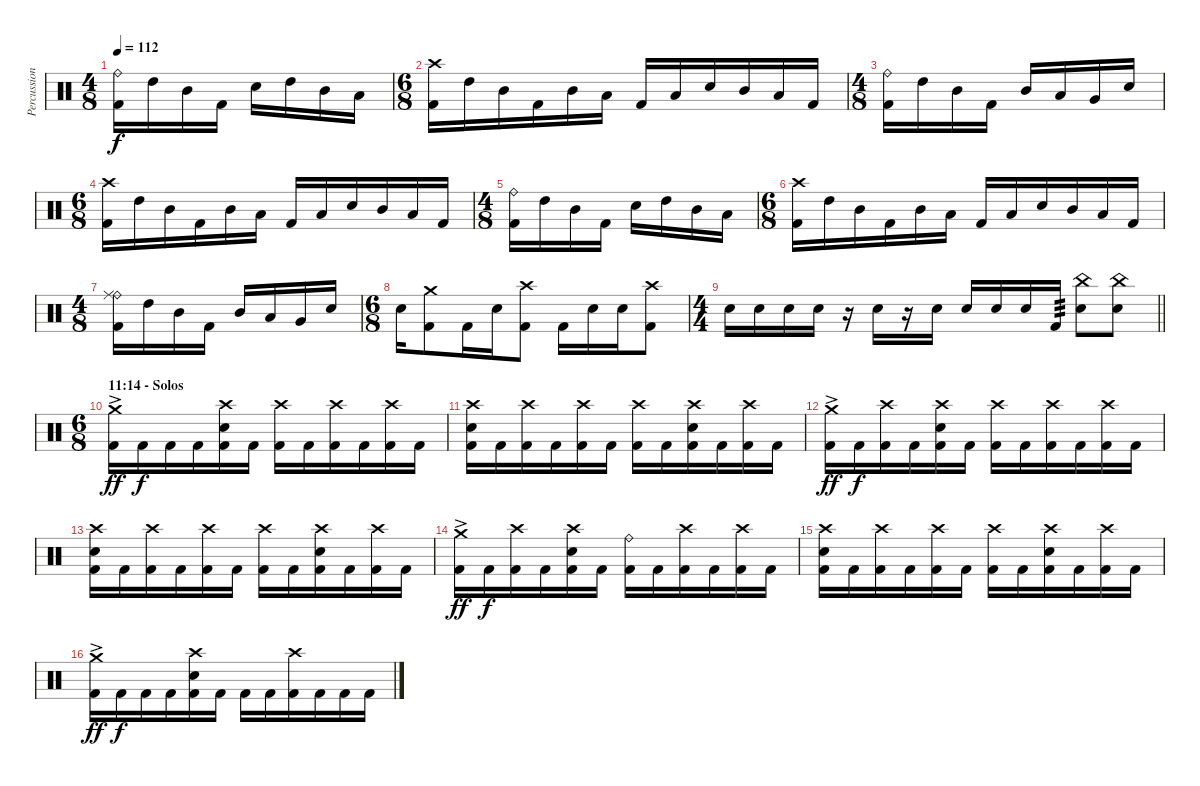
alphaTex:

\track ("Percussion" "Percussion") {instrument percussion}
\staff {score}
\articulation defaults
\ts (4 8)
\tempo 112
\clef neutral
\ks c
("Kick (hit) 2" "Ride (bell)").16{dy f} "High Tom (hit)".16 "Mid Tom (hit)".16 "Kick (hit) 2".16 "Electric Snare (hit)".16 "High Tom (hit)".16 "Mid Tom (hit)".16 "Low Tom (hit)".16 |
\ts (6 8)
("Crash high (hit)" "Kick (hit) 2").16 "High Tom (hit)".16 "Mid Tom (hit)".16 "Kick (hit) 2".16 "Mid Tom (hit)".16 "Low Tom (hit)".16 "Kick (hit) 2".16 "Low Tom (hit)".16 "Electric Snare (hit)".16 "Mid Tom (hit)".16 "Low Tom (hit)".16 "Kick (hit) 2".16 |
\ts (4 8)
("Kick (hit) 2" "Ride (bell)").16 "High Tom (hit)".16 "Mid Tom (hit)".16 "Kick (hit) 2".16 "Mid Tom (hit)".16 "Low Tom (hit)".16 "Very Low Tom (hit)".16 "Electric Snare (hit)".16 |
\ts (6 8)
("Crash high (hit)" "Kick (hit) 2").16 "High Tom (hit)".16 "Mid Tom (hit)".16 "Kick (hit) 2".16 "Mid Tom (hit)".16 "Low Tom (hit)".16 "Kick (hit) 2".16 "Low Tom (hit)".16 "Electric Snare (hit)".16 "Mid Tom (hit)".16 "Low Tom (hit)".16 "Kick (hit) 2".16 |
\ts (4 8)
("Kick (hit) 2" "Ride (bell)").16 "High Tom (hit)".16 "Mid Tom (hit)".16 "Kick (hit) 2".16 "Electric Snare (hit)".16 "High Tom (hit)".16 "Mid Tom (hit)".16 "Low Tom (hit)".16 |
\ts (6 8)
("Crash high (hit)" "Kick (hit) 2").16 "High Tom (hit)".16 "Mid Tom (hit)".16 "Kick (hit) 2".16 "Mid Tom (hit)".16 "Low Tom (hit)".16 "Kick (hit) 2".16 "Low Tom (hit)".16 "Electric Snare (hit)".16 "Mid Tom (hit)".16 "Low Tom (hit)".16 "Kick (hit) 2".16 |
\ts (4 8)
("Kick (hit) 2" "Ride (bell)" "Ride (middle)").16 "High Tom (hit)".16 "Mid Tom (hit)".16 "Kick (hit) 2".16 "Mid Tom (hit)".16 "Low Tom (hit)".16 "Very Low Tom (hit)".16 "Electric Snare (hit)".16 |
\ts (6 8)
"Electric Snare (hit)".16 ("Kick (hit) 2" "Crash medium (hit)").8 "Kick (hit) 2".16 "Electric Snare (hit)".16 ("Crash high (hit)" "Kick (hit) 2").8 "Kick (hit) 2".16 "Electric Snare (hit)".16 "Electric Snare (hit)".16 ("Crash high (hit)" "Kick (hit) 2").8 |
\ts (4 4)
\barLineRight lightlight "Electric Snare (hit)".16 "Electric Snare (hit)".16 "Electric Snare (hit)".16 "Electric Snare (hit)".16
r.16 "Electric Snare (hit)".16 r.16 "Electric Snare (hit)".16 "Electric Snare (hit)".16 "Electric Snare (hit)".16 "Electric Snare (hit)".16 "Kick (hit) 2".16{tp 3} ("China (hit)" "Electric Snare (hit)").8 ("Electric Snare (hit)" "China (hit)").8 |
\ts (6 8)
\section ("" "11:14 - Solos")
("Kick (hit) 2" "Crash medium (hit)"{ac}).16{dy ff} "Kick (hit) 2".16{dy f} "Kick (hit) 2".16 "Kick (hit) 2".16 ("Kick (hit) 2" "Crash high (hit)" "Electric Snare (hit)").16 "Kick (hit) 2".16 ("Kick (hit) 2" "Crash high (hit)").16 "Kick (hit) 2".16 ("Kick (hit) 2" "Crash high (hit)").16 "Kick (hit) 2".16 ("Kick (hit) 2" "Crash high (hit)").16 "Kick (hit) 2".16 |
("Kick (hit) 2" "Crash high (hit)" "Electric Snare (hit)").16 "Kick (hit) 2".16 ("Kick (hit) 2" "Crash high (hit)").16 "Kick (hit) 2".16 ("Kick (hit) 2" "Crash high (hit)").16 "Kick (hit) 2".16 ("Kick (hit) 2" "Crash high (hit)").16 "Kick (hit) 2".16 ("Kick (hit) 2" "Crash high (hit)" "Electric Snare (hit)").16 "Kick (hit) 2".16 ("Kick (hit) 2" "Crash high (hit)").16 "Kick (hit) 2".16 |
("Crash medium (hit)"{ac} "Kick (hit) 2").16{dy ff} "Kick (hit) 2".16{dy f} ("Kick (hit) 2" "Crash high (hit)").16 "Kick (hit) 2".16 ("Kick (hit) 2" "Crash high (hit)" "Electric Snare (hit)").16 "Kick (hit) 2".16 ("Kick (hit) 2" "Crash high (hit)").16 "Kick (hit) 2".16 ("Kick (hit) 2" "Crash high (hit)").16 "Kick (hit) 2".16 ("Crash high (hit)" "Kick (hit) 2").16 "Kick (hit) 2".16 |
("Kick (hit) 2" "Crash high (hit)" "Electric Snare (hit)").16 "Kick (hit) 2".16 ("Kick (hit) 2" "Crash high (hit)").16 "Kick (hit) 2".16 ("Kick (hit) 2" "Crash high (hit)").16 "Kick (hit) 2".16 ("Crash high (hit)" "Kick (hit) 2").16 "Kick (hit) 2".16 ("Kick (hit) 2" "Crash high (hit)" "Electric Snare (hit)").16 "Kick (hit) 2".16 ("Kick (hit) 2" "Crash high (hit)").16 "Kick (hit) 2".16 |
("Crash medium (hit)"{ac} "Kick (hit) 2").16{dy ff} "Kick (hit) 2".16{dy f} ("Kick (hit) 2" "Crash high (hit)").16 "Kick (hit) 2".16 ("Kick (hit) 2" "Crash high (hit)" "Electric Snare (hit)").16 "Kick (hit) 2".16 ("Kick (hit) 2" "Ride (bell)").16 "Kick (hit) 2".16 ("Kick (hit) 2" "Crash high (hit)").16 "Kick (hit) 2".16 ("Crash high (hit)" "Kick (hit) 2").16 "Kick (hit) 2".16 |
("Kick (hit) 2" "Crash high (hit)" "Electric Snare (hit)").16 "Kick (hit) 2".16 ("Kick (hit) 2" "Crash high (hit)").16 "Kick (hit) 2".16 ("Kick (hit) 2" "Crash high (hit)").16 "Kick (hit) 2".16 ("Crash high (hit)" "Kick (hit) 2").16 "Kick (hit) 2".16 ("Kick (hit) 2" "Crash high (hit)" "Electric Snare (hit)").16 "Kick (hit) 2".16 ("Kick (hit) 2" "Crash high (hit)").16 "Kick (hit) 2".16 |
("Crash medium (hit)"{ac} "Kick (hit) 2").16{dy ff} "Kick (hit) 2".16{dy f} "Kick (hit) 2".16 "Kick (hit) 2".16 ("Kick (hit) 2" "Crash high (hit)" "Electric Snare (hit)").16 "Kick (hit) 2".16 "Kick (hit) 2".16 "Kick (hit) 2".16 ("Kick (hit) 2" "Crash high (hit)").16 "Kick (hit) 2".16 "Kick (hit) 2".16 "Kick (hit) 2".16
